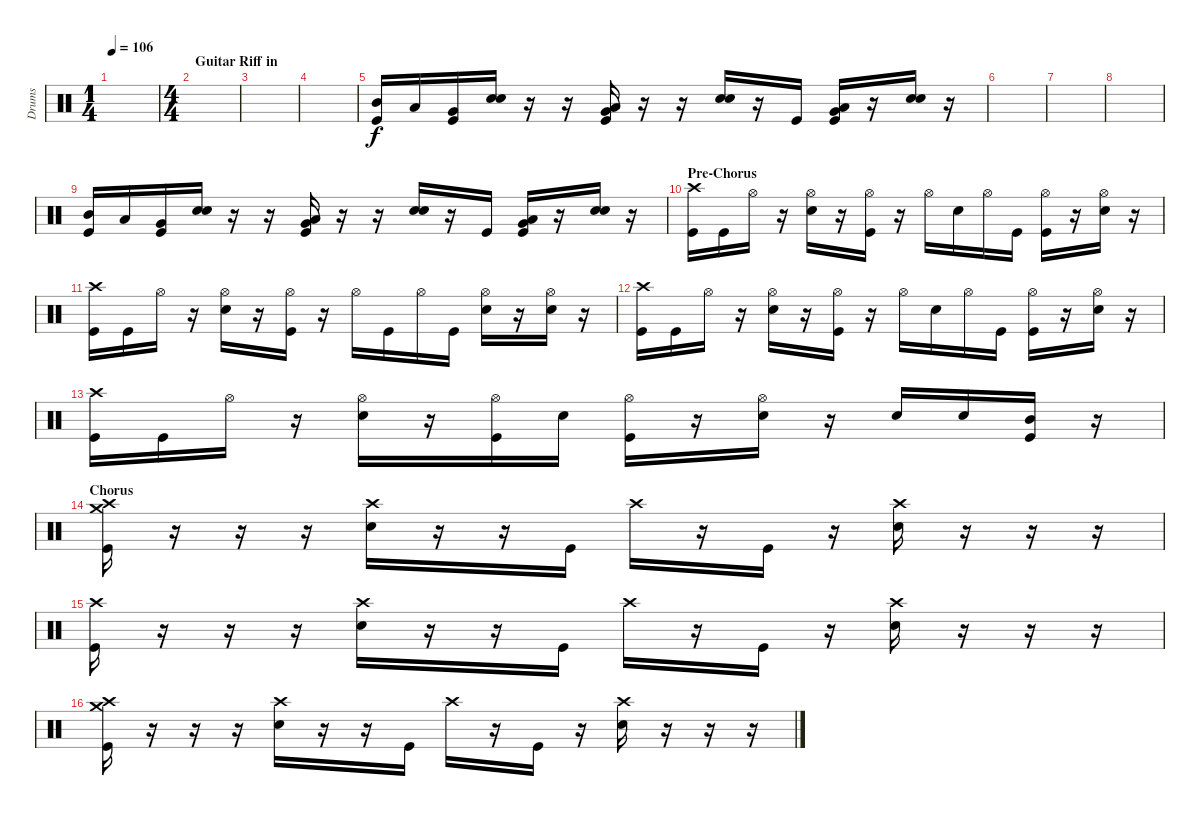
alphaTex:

\track ("Drums" "Drums") {instrument percussion}
\staff {score}
\articulation defaults
\ts (1 4)
\tempo 106
\clef neutral
\ks c
|
\ts (4 4)
\section ("" "Guitar Riff in")
|
|
|
("Mid Tom (hit)" "Kick (hit)").16 "Low Tom (hit)".16 ("Very Low Tom (hit)" "Kick (hit)").16 ("Electric Snare (hit)" "Electric Snare (hit)").16{bd 60} r.16 r.16 ("Low Tom (hit)" "Very Low Tom (hit)" "Kick (hit)").16 r.16 r.16 ("Electric Snare (hit)" "Electric Snare (hit)").16{bd 60} r.16 "Kick (hit)".16 ("Low Tom (hit)" "Very Low Tom (hit)" "Kick (hit)").16 r.16 ("Electric Snare (hit)" "Electric Snare (hit)").16{bd 60} r.16 |
|
|
|
("Mid Tom (hit)" "Kick (hit)").16 "Low Tom (hit)".16 ("Very Low Tom (hit)" "Kick (hit)").16 ("Electric Snare (hit)" "Electric Snare (hit)").16{bd 60} r.16 r.16 ("Low Tom (hit)" "Very Low Tom (hit)" "Kick (hit)").16 r.16 r.16 ("Electric Snare (hit)" "Electric Snare (hit)").16{bd 60} r.16 "Kick (hit)".16 ("Low Tom (hit)" "Very Low Tom (hit)" "Kick (hit)").16 r.16 ("Electric Snare (hit)" "Electric Snare (hit)").16{bd 60} r.16 |
\section ("" "Pre-Chorus")
("Crash high (hit)" "Kick (hit)").16 "Kick (hit)".16 "Hi-Hat (open)".16 r.16 ("Hi-Hat (open)" "Electric Snare (hit)").16 r.16 ("Hi-Hat (open)" "Kick (hit)").16 r.16 "Hi-Hat (open)".16 "Electric Snare (hit)".16 "Hi-Hat (open)".16 "Kick (hit)".16 ("Hi-Hat (open)" "Kick (hit)").16 r.16 ("Hi-Hat (open)" "Electric Snare (hit)").16 r.16 |
("Crash high (hit)" "Kick (hit)").16 "Kick (hit)".16 "Hi-Hat (open)".16 r.16 ("Hi-Hat (open)" "Electric Snare (hit)").16 r.16 ("Hi-Hat (open)" "Kick (hit)").16 r.16 "Hi-Hat (open)".16 "Kick (hit)".16 "Hi-Hat (open)".16 "Kick (hit)".16 ("Hi-Hat (open)" "Electric Snare (hit)").16 r.16 ("Hi-Hat (open)" "Electric Snare (hit)").16 r.16 |
("Crash high (hit)" "Kick (hit)").16 "Kick (hit)".16 "Hi-Hat (open)".16 r.16 ("Hi-Hat (open)" "Electric Snare (hit)").16 r.16 ("Hi-Hat (open)" "Kick (hit)").16 r.16 "Hi-Hat (open)".16 "Electric Snare (hit)".16 "Hi-Hat (open)".16 "Kick (hit)".16 ("Hi-Hat (open)" "Kick (hit)").16 r.16 ("Hi-Hat (open)" "Electric Snare (hit)").16 r.16 |
("Crash high (hit)" "Kick (hit)").16 "Kick (hit)".16 "Hi-Hat (open)".16 r.16 ("Hi-Hat (open)" "Electric Snare (hit)").16 r.16 ("Hi-Hat (open)" "Kick (hit)").16 "Electric Snare (hit)".16 ("Hi-Hat (open)" "Kick (hit)").16 r.16 ("Hi-Hat (open)" "Electric Snare (hit)").16 r.16 "Electric Snare (hit)".16 "Electric Snare (hit)".16 ("Mid Tom (hit)" "Kick (hit)").16 r.16 |
\section ("" "Chorus")
("Crash high (hit)" "Crash medium (hit)" "Kick (hit)").16 r.16 r.16 r.16 ("Crash high (hit)" "Electric Snare (hit)").16 r.16 r.16 "Kick (hit)".16 "Crash high (hit)".16 r.16 "Kick (hit)".16 r.16 ("Crash high (hit)" "Electric Snare (hit)").16 r.16 r.16 r.16 |
("Crash high (hit)" "Kick (hit)").16 r.16 r.16 r.16 ("Crash high (hit)" "Electric Snare (hit)").16 r.16 r.16 "Kick (hit)".16 "Crash high (hit)".16 r.16 "Kick (hit)".16 r.16 ("Crash high (hit)" "Electric Snare (hit)").16 r.16 r.16 r.16 |
("Crash high (hit)" "Crash medium (hit)" "Kick (hit)").16 r.16 r.16 r.16 ("Crash high (hit)" "Electric Snare (hit)").16 r.16 r.16 "Kick (hit)".16 "Crash high (hit)".16 r.16 "Kick (hit)".16 r.16 ("Crash high (hit)" "Electric Snare (hit)").16 r.16 r.16 r.16
